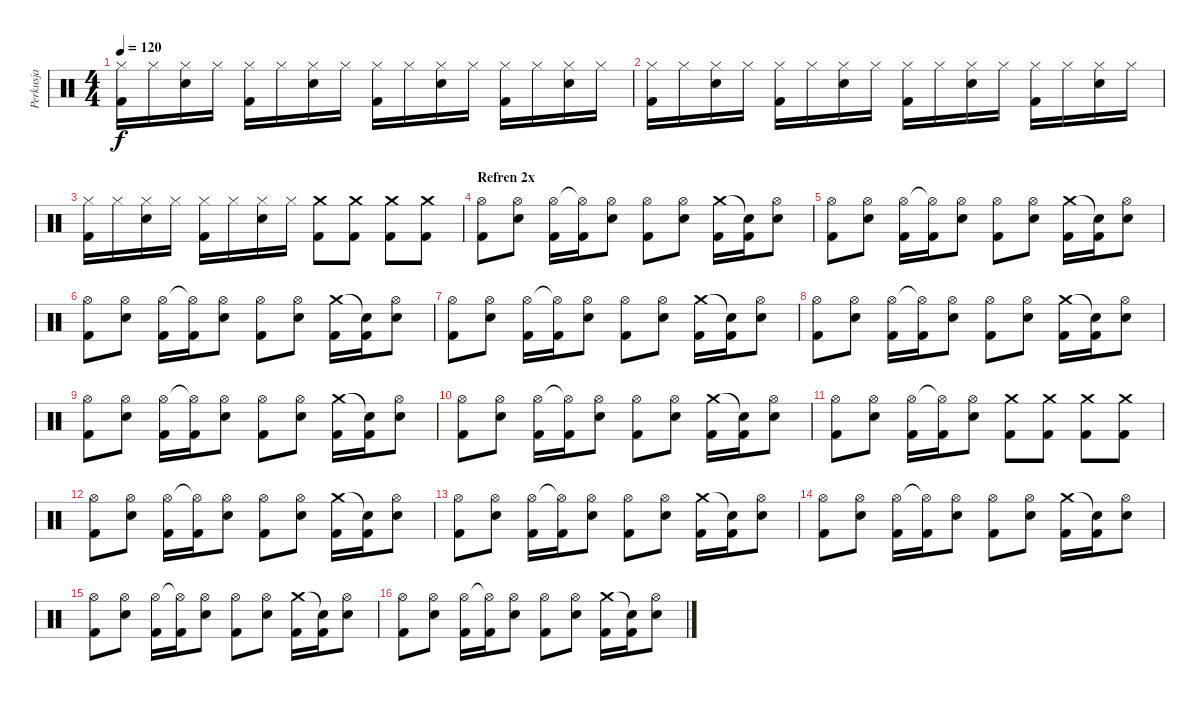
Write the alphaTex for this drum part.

\track ("Perkusja" "Perkusja") {instrument percussion}
\staff {score}
\articulation defaults
\ts (4 4)
\tempo 120
\clef neutral
\ks c
("Hi-Hat (closed)" "Kick (hit) 2").16{dy f} "Hi-Hat (closed)".16 ("Hi-Hat (closed)" "Snare (hit) 2").16 "Hi-Hat (closed)".16 ("Hi-Hat (closed)" "Kick (hit) 2").16 "Hi-Hat (closed)".16 ("Hi-Hat (closed)" "Snare (hit) 2").16 "Hi-Hat (closed)".16 ("Hi-Hat (closed)" "Kick (hit) 2").16 "Hi-Hat (closed)".16 ("Hi-Hat (closed)" "Snare (hit) 2").16 "Hi-Hat (closed)".16 ("Hi-Hat (closed)" "Kick (hit) 2").16 "Hi-Hat (closed)".16 ("Hi-Hat (closed)" "Snare (hit) 2").16 "Hi-Hat (closed)".16 |
("Hi-Hat (closed)" "Kick (hit) 2").16 "Hi-Hat (closed)".16 ("Hi-Hat (closed)" "Snare (hit) 2").16 "Hi-Hat (closed)".16 ("Hi-Hat (closed)" "Kick (hit) 2").16 "Hi-Hat (closed)".16 ("Hi-Hat (closed)" "Snare (hit) 2").16 "Hi-Hat (closed)".16 ("Hi-Hat (closed)" "Kick (hit) 2").16 "Hi-Hat (closed)".16 ("Hi-Hat (closed)" "Snare (hit) 2").16 "Hi-Hat (closed)".16 ("Hi-Hat (closed)" "Kick (hit) 2").16 "Hi-Hat (closed)".16 ("Hi-Hat (closed)" "Snare (hit) 2").16 "Hi-Hat (closed)".16 |
("Hi-Hat (closed)" "Kick (hit) 2").16 "Hi-Hat (closed)".16 ("Hi-Hat (closed)" "Snare (hit) 2").16 "Hi-Hat (closed)".16 ("Hi-Hat (closed)" "Kick (hit) 2").16 "Hi-Hat (closed)".16 ("Hi-Hat (closed)" "Snare (hit) 2").16 "Hi-Hat (closed)".16 ("Crash medium (hit)" "Kick (hit) 2").8 ("Crash medium (hit)" "Kick (hit) 2").8 ("Crash medium (hit)" "Kick (hit) 2").8 ("Crash medium (hit)" "Kick (hit) 2").8 |
\section ("" "Refren 2x")
("Kick (hit) 2" "Hi-Hat (open)").8 ("Snare (hit) 2" "Hi-Hat (open)").8 ("Kick (hit) 2" "Hi-Hat (open)").16 ("Kick (hit) 2" "Hi-Hat (open)"{t}).16 ("Snare (hit) 2" "Hi-Hat (open)").8 ("Kick (hit) 2" "Hi-Hat (open)").8 ("Snare (hit) 2" "Hi-Hat (open)").8 ("Kick (hit) 2" "Crash medium (hit)").16 ("Kick (hit) 2" "Snare (hit)"{t}).16 ("Snare (hit) 2" "Hi-Hat (open)").8 |
("Kick (hit) 2" "Hi-Hat (open)").8 ("Snare (hit) 2" "Hi-Hat (open)").8 ("Kick (hit) 2" "Hi-Hat (open)").16 ("Kick (hit) 2" "Hi-Hat (open)"{t}).16 ("Snare (hit) 2" "Hi-Hat (open)").8 ("Kick (hit) 2" "Hi-Hat (open)").8 ("Snare (hit) 2" "Hi-Hat (open)").8 ("Kick (hit) 2" "Crash medium (hit)").16 ("Kick (hit) 2" "Snare (hit)"{t}).16 ("Snare (hit) 2" "Hi-Hat (open)").8 |
("Kick (hit) 2" "Hi-Hat (open)").8 ("Snare (hit) 2" "Hi-Hat (open)").8 ("Kick (hit) 2" "Hi-Hat (open)").16 ("Kick (hit) 2" "Hi-Hat (open)"{t}).16 ("Snare (hit) 2" "Hi-Hat (open)").8 ("Kick (hit) 2" "Hi-Hat (open)").8 ("Snare (hit) 2" "Hi-Hat (open)").8 ("Kick (hit) 2" "Crash medium (hit)").16 ("Kick (hit) 2" "Snare (hit)"{t}).16 ("Snare (hit) 2" "Hi-Hat (open)").8 |
("Kick (hit) 2" "Hi-Hat (open)").8 ("Snare (hit) 2" "Hi-Hat (open)").8 ("Kick (hit) 2" "Hi-Hat (open)").16 ("Kick (hit) 2" "Hi-Hat (open)"{t}).16 ("Snare (hit) 2" "Hi-Hat (open)").8 ("Kick (hit) 2" "Hi-Hat (open)").8 ("Snare (hit) 2" "Hi-Hat (open)").8 ("Kick (hit) 2" "Crash medium (hit)").16 ("Kick (hit) 2" "Snare (hit)"{t}).16 ("Snare (hit) 2" "Hi-Hat (open)").8 |
("Kick (hit) 2" "Hi-Hat (open)").8 ("Snare (hit) 2" "Hi-Hat (open)").8 ("Kick (hit) 2" "Hi-Hat (open)").16 ("Kick (hit) 2" "Hi-Hat (open)"{t}).16 ("Snare (hit) 2" "Hi-Hat (open)").8 ("Kick (hit) 2" "Hi-Hat (open)").8 ("Snare (hit) 2" "Hi-Hat (open)").8 ("Kick (hit) 2" "Crash medium (hit)").16 ("Kick (hit) 2" "Snare (hit)"{t}).16 ("Snare (hit) 2" "Hi-Hat (open)").8 |
("Kick (hit) 2" "Hi-Hat (open)").8 ("Snare (hit) 2" "Hi-Hat (open)").8 ("Kick (hit) 2" "Hi-Hat (open)").16 ("Kick (hit) 2" "Hi-Hat (open)"{t}).16 ("Snare (hit) 2" "Hi-Hat (open)").8 ("Kick (hit) 2" "Hi-Hat (open)").8 ("Snare (hit) 2" "Hi-Hat (open)").8 ("Kick (hit) 2" "Crash medium (hit)").16 ("Kick (hit) 2" "Snare (hit)"{t}).16 ("Snare (hit) 2" "Hi-Hat (open)").8 |
("Kick (hit) 2" "Hi-Hat (open)").8 ("Snare (hit) 2" "Hi-Hat (open)").8 ("Kick (hit) 2" "Hi-Hat (open)").16 ("Kick (hit) 2" "Hi-Hat (open)"{t}).16 ("Snare (hit) 2" "Hi-Hat (open)").8 ("Kick (hit) 2" "Hi-Hat (open)").8 ("Snare (hit) 2" "Hi-Hat (open)").8 ("Kick (hit) 2" "Crash medium (hit)").16 ("Kick (hit) 2" "Snare (hit)"{t}).16 ("Snare (hit) 2" "Hi-Hat (open)").8 |
("Kick (hit) 2" "Hi-Hat (open)").8 ("Snare (hit) 2" "Hi-Hat (open)").8 ("Kick (hit) 2" "Hi-Hat (open)").16 ("Kick (hit) 2" "Hi-Hat (open)"{t}).16 ("Snare (hit) 2" "Hi-Hat (open)").8 ("Kick (hit) 2" "Crash medium (hit)").8 ("Kick (hit) 2" "Crash medium (hit)").8 ("Kick (hit) 2" "Crash medium (hit)").8 ("Kick (hit) 2" "Crash medium (hit)").8 |
("Kick (hit) 2" "Hi-Hat (open)").8 ("Snare (hit) 2" "Hi-Hat (open)").8 ("Kick (hit) 2" "Hi-Hat (open)").16 ("Kick (hit) 2" "Hi-Hat (open)"{t}).16 ("Snare (hit) 2" "Hi-Hat (open)").8 ("Kick (hit) 2" "Hi-Hat (open)").8 ("Snare (hit) 2" "Hi-Hat (open)").8 ("Kick (hit) 2" "Crash medium (hit)").16 ("Kick (hit) 2" "Snare (hit)"{t}).16 ("Snare (hit) 2" "Hi-Hat (open)").8 |
("Kick (hit) 2" "Hi-Hat (open)").8 ("Snare (hit) 2" "Hi-Hat (open)").8 ("Kick (hit) 2" "Hi-Hat (open)").16 ("Kick (hit) 2" "Hi-Hat (open)"{t}).16 ("Snare (hit) 2" "Hi-Hat (open)").8 ("Kick (hit) 2" "Hi-Hat (open)").8 ("Snare (hit) 2" "Hi-Hat (open)").8 ("Kick (hit) 2" "Crash medium (hit)").16 ("Kick (hit) 2" "Snare (hit)"{t}).16 ("Snare (hit) 2" "Hi-Hat (open)").8 |
("Kick (hit) 2" "Hi-Hat (open)").8 ("Snare (hit) 2" "Hi-Hat (open)").8 ("Kick (hit) 2" "Hi-Hat (open)").16 ("Kick (hit) 2" "Hi-Hat (open)"{t}).16 ("Snare (hit) 2" "Hi-Hat (open)").8 ("Kick (hit) 2" "Hi-Hat (open)").8 ("Snare (hit) 2" "Hi-Hat (open)").8 ("Kick (hit) 2" "Crash medium (hit)").16 ("Kick (hit) 2" "Snare (hit)"{t}).16 ("Snare (hit) 2" "Hi-Hat (open)").8 |
("Kick (hit) 2" "Hi-Hat (open)").8 ("Snare (hit) 2" "Hi-Hat (open)").8 ("Kick (hit) 2" "Hi-Hat (open)").16 ("Kick (hit) 2" "Hi-Hat (open)"{t}).16 ("Snare (hit) 2" "Hi-Hat (open)").8 ("Kick (hit) 2" "Hi-Hat (open)").8 ("Snare (hit) 2" "Hi-Hat (open)").8 ("Kick (hit) 2" "Crash medium (hit)").16 ("Kick (hit) 2" "Snare (hit)"{t}).16 ("Snare (hit) 2" "Hi-Hat (open)").8 |
("Kick (hit) 2" "Hi-Hat (open)").8 ("Snare (hit) 2" "Hi-Hat (open)").8 ("Kick (hit) 2" "Hi-Hat (open)").16 ("Kick (hit) 2" "Hi-Hat (open)"{t}).16 ("Snare (hit) 2" "Hi-Hat (open)").8 ("Kick (hit) 2" "Hi-Hat (open)").8 ("Snare (hit) 2" "Hi-Hat (open)").8 ("Kick (hit) 2" "Crash medium (hit)").16 ("Kick (hit) 2" "Snare (hit)"{t}).16 ("Snare (hit) 2" "Hi-Hat (open)").8
